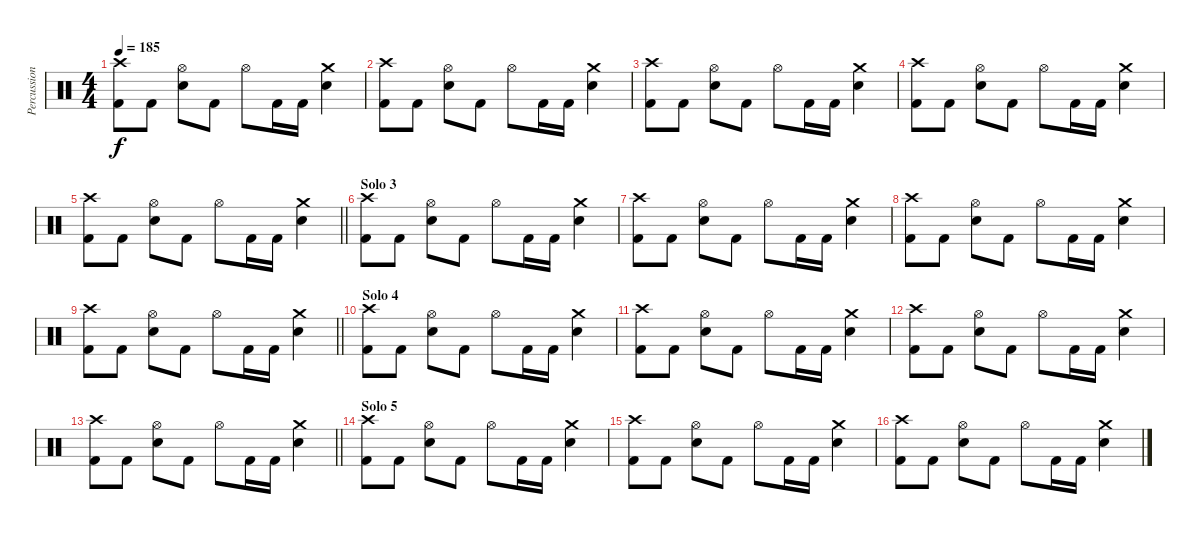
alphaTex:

\track ("Percussioni" "Percussion") {instrument percussion}
\staff {score}
\articulation defaults
\ts (4 4)
\tempo 185
\clef neutral
\ks c
("Kick (hit) 2" "Crash high (hit)").8{dy f} "Kick (hit) 2".8 ("Snare (hit) 2" "Hi-Hat (open)").8 "Kick (hit) 2".8 "Hi-Hat (open)".8 "Kick (hit) 2".16 "Kick (hit) 2".16 ("Snare (hit) 2" "Crash medium (hit)").4 |
("Kick (hit) 2" "Crash high (hit)").8 "Kick (hit) 2".8 ("Snare (hit) 2" "Hi-Hat (open)").8 "Kick (hit) 2".8 "Hi-Hat (open)".8 "Kick (hit) 2".16 "Kick (hit) 2".16 ("Snare (hit) 2" "Crash medium (hit)").4 |
("Kick (hit) 2" "Crash high (hit)").8 "Kick (hit) 2".8 ("Snare (hit) 2" "Hi-Hat (open)").8 "Kick (hit) 2".8 "Hi-Hat (open)".8 "Kick (hit) 2".16 "Kick (hit) 2".16 ("Snare (hit) 2" "Crash medium (hit)").4 |
("Kick (hit) 2" "Crash high (hit)").8 "Kick (hit) 2".8 ("Snare (hit) 2" "Hi-Hat (open)").8 "Kick (hit) 2".8 "Hi-Hat (open)".8 "Kick (hit) 2".16 "Kick (hit) 2".16 ("Snare (hit) 2" "Crash medium (hit)").4 |
\barLineRight lightlight
("Kick (hit) 2" "Crash high (hit)").8 "Kick (hit) 2".8 ("Snare (hit) 2" "Hi-Hat (open)").8 "Kick (hit) 2".8 "Hi-Hat (open)".8 "Kick (hit) 2".16 "Kick (hit) 2".16 ("Snare (hit) 2" "Crash medium (hit)").4 |
\section ("" "Solo 3")
("Kick (hit) 2" "Crash high (hit)").8 "Kick (hit) 2".8 ("Snare (hit) 2" "Hi-Hat (open)").8 "Kick (hit) 2".8 "Hi-Hat (open)".8 "Kick (hit) 2".16 "Kick (hit) 2".16 ("Snare (hit) 2" "Crash medium (hit)").4 |
("Kick (hit) 2" "Crash high (hit)").8 "Kick (hit) 2".8 ("Snare (hit) 2" "Hi-Hat (open)").8 "Kick (hit) 2".8 "Hi-Hat (open)".8 "Kick (hit) 2".16 "Kick (hit) 2".16 ("Snare (hit) 2" "Crash medium (hit)").4 |
("Kick (hit) 2" "Crash high (hit)").8 "Kick (hit) 2".8 ("Snare (hit) 2" "Hi-Hat (open)").8 "Kick (hit) 2".8 "Hi-Hat (open)".8 "Kick (hit) 2".16 "Kick (hit) 2".16 ("Snare (hit) 2" "Crash medium (hit)").4 |
\barLineRight lightlight
("Kick (hit) 2" "Crash high (hit)").8 "Kick (hit) 2".8 ("Snare (hit) 2" "Hi-Hat (open)").8 "Kick (hit) 2".8 "Hi-Hat (open)".8 "Kick (hit) 2".16 "Kick (hit) 2".16 ("Snare (hit) 2" "Crash medium (hit)").4 |
\section ("" "Solo 4")
("Kick (hit) 2" "Crash high (hit)").8 "Kick (hit) 2".8 ("Snare (hit) 2" "Hi-Hat (open)").8 "Kick (hit) 2".8 "Hi-Hat (open)".8 "Kick (hit) 2".16 "Kick (hit) 2".16 ("Snare (hit) 2" "Crash medium (hit)").4 |
("Kick (hit) 2" "Crash high (hit)").8 "Kick (hit) 2".8 ("Snare (hit) 2" "Hi-Hat (open)").8 "Kick (hit) 2".8 "Hi-Hat (open)".8 "Kick (hit) 2".16 "Kick (hit) 2".16 ("Snare (hit) 2" "Crash medium (hit)").4 |
("Kick (hit) 2" "Crash high (hit)").8 "Kick (hit) 2".8 ("Snare (hit) 2" "Hi-Hat (open)").8 "Kick (hit) 2".8 "Hi-Hat (open)".8 "Kick (hit) 2".16 "Kick (hit) 2".16 ("Snare (hit) 2" "Crash medium (hit)").4 |
\barLineRight lightlight
("Kick (hit) 2" "Crash high (hit)").8 "Kick (hit) 2".8 ("Snare (hit) 2" "Hi-Hat (open)").8 "Kick (hit) 2".8 "Hi-Hat (open)".8 "Kick (hit) 2".16 "Kick (hit) 2".16 ("Snare (hit) 2" "Crash medium (hit)").4 |
\section ("" "Solo 5")
("Kick (hit) 2" "Crash high (hit)").8 "Kick (hit) 2".8 ("Snare (hit) 2" "Hi-Hat (open)").8 "Kick (hit) 2".8 "Hi-Hat (open)".8 "Kick (hit) 2".16 "Kick (hit) 2".16 ("Snare (hit) 2" "Crash medium (hit)").4 |
("Kick (hit) 2" "Crash high (hit)").8 "Kick (hit) 2".8 ("Snare (hit) 2" "Hi-Hat (open)").8 "Kick (hit) 2".8 "Hi-Hat (open)".8 "Kick (hit) 2".16 "Kick (hit) 2".16 ("Snare (hit) 2" "Crash medium (hit)").4 |
("Kick (hit) 2" "Crash high (hit)").8 "Kick (hit) 2".8 ("Snare (hit) 2" "Hi-Hat (open)").8 "Kick (hit) 2".8 "Hi-Hat (open)".8 "Kick (hit) 2".16 "Kick (hit) 2".16 ("Snare (hit) 2" "Crash medium (hit)").4
